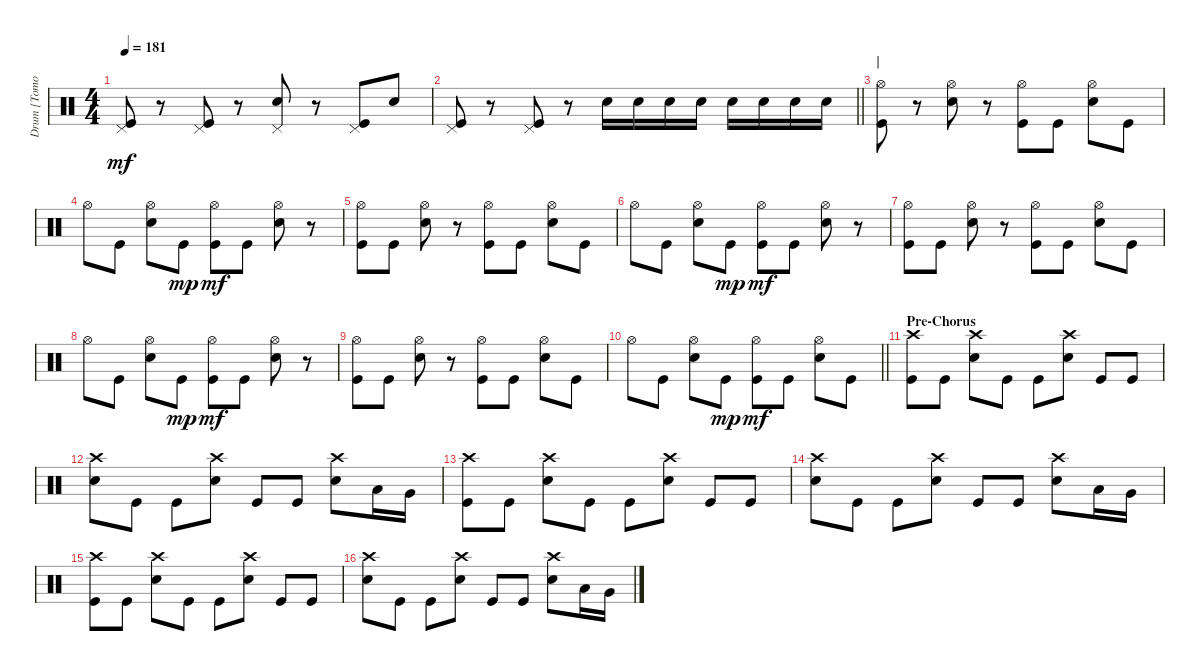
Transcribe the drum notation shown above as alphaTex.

\track ("Drum [Tomoya]" "Drum [Tomo") {instrument percussion}
\staff {score}
\articulation defaults
\ts (4 4)
\tempo 181
\clef neutral
\ks c
("Kick (hit)" "Pedal Hi-Hat (hit)").8{dy mf} r.8 ("Kick (hit)" "Pedal Hi-Hat (hit)").8 r.8 ("Pedal Hi-Hat (hit)" "Snare (hit) 2").8 r.8 ("Kick (hit)" "Pedal Hi-Hat (hit)").8 "Snare (hit) 2".8 |
\barLineRight lightlight
("Kick (hit)" "Pedal Hi-Hat (hit)").8 r.8 ("Kick (hit)" "Pedal Hi-Hat (hit)").8 r.8 "Snare (hit) 2".16 "Snare (hit) 2".16 "Snare (hit) 2".16 "Snare (hit) 2".16 "Snare (hit) 2".16 "Snare (hit) 2".16 "Snare (hit) 2".16 "Snare (hit) 2".16 |
\section ("" "|")
("Kick (hit)" "Hi-Hat (open)").8 r.8 ("Snare (hit) 2" "Hi-Hat (open)").8 r.8 ("Kick (hit)" "Hi-Hat (open)").8 "Kick (hit)".8 ("Snare (hit) 2" "Hi-Hat (open)").8 "Kick (hit)".8 |
"Hi-Hat (open)".8 "Kick (hit)".8 ("Snare (hit) 2" "Hi-Hat (open)").8 "Kick (hit)".8{dy mp} ("Kick (hit)" "Hi-Hat (open)").8{dy mf} "Kick (hit)".8 ("Snare (hit) 2" "Hi-Hat (open)").8 r.8 |
("Kick (hit)" "Hi-Hat (open)").8 "Kick (hit)".8 ("Snare (hit) 2" "Hi-Hat (open)").8 r.8 ("Kick (hit)" "Hi-Hat (open)").8 "Kick (hit)".8 ("Snare (hit) 2" "Hi-Hat (open)").8 "Kick (hit)".8 |
"Hi-Hat (open)".8 "Kick (hit)".8 ("Snare (hit) 2" "Hi-Hat (open)").8 "Kick (hit)".8{dy mp} ("Kick (hit)" "Hi-Hat (open)").8{dy mf} "Kick (hit)".8 ("Snare (hit) 2" "Hi-Hat (open)").8 r.8 |
("Kick (hit)" "Hi-Hat (open)").8 "Kick (hit)".8 ("Snare (hit) 2" "Hi-Hat (open)").8 r.8 ("Kick (hit)" "Hi-Hat (open)").8 "Kick (hit)".8 ("Snare (hit) 2" "Hi-Hat (open)").8 "Kick (hit)".8 |
"Hi-Hat (open)".8 "Kick (hit)".8 ("Snare (hit) 2" "Hi-Hat (open)").8 "Kick (hit)".8{dy mp} ("Kick (hit)" "Hi-Hat (open)").8{dy mf} "Kick (hit)".8 ("Snare (hit) 2" "Hi-Hat (open)").8 r.8 |
("Kick (hit)" "Hi-Hat (open)").8 "Kick (hit)".8 ("Snare (hit) 2" "Hi-Hat (open)").8 r.8 ("Kick (hit)" "Hi-Hat (open)").8 "Kick (hit)".8 ("Snare (hit) 2" "Hi-Hat (open)").8 "Kick (hit)".8 |
\barLineRight lightlight "Hi-Hat (open)".8 "Kick (hit)".8
("Snare (hit) 2" "Hi-Hat (open)").8 "Kick (hit)".8{dy mp} ("Kick (hit)" "Hi-Hat (open)").8{dy mf} "Kick (hit)".8 ("Snare (hit) 2" "Hi-Hat (open)").8 "Kick (hit)".8 |
\section ("" "Pre-Chorus")
("Kick (hit)" "Crash high (hit)").8 "Kick (hit)".8 ("Snare (hit) 2" "Crash high (hit)").8 "Kick (hit)".8 "Kick (hit)".8 ("Snare (hit) 2" "Crash high (hit)").8 "Kick (hit)".8 "Kick (hit)".8 |
("Snare (hit) 2" "Crash high (hit)").8 "Kick (hit)".8 "Kick (hit)".8 ("Snare (hit) 2" "Crash high (hit)").8 "Kick (hit)".8 "Kick (hit)".8 ("Snare (hit) 2" "Crash high (hit)").8 "Low Tom (hit)".16 "Very Low Tom (hit)".16 |
("Kick (hit)" "Crash high (hit)").8 "Kick (hit)".8 ("Snare (hit) 2" "Crash high (hit)").8 "Kick (hit)".8 "Kick (hit)".8 ("Snare (hit) 2" "Crash high (hit)").8 "Kick (hit)".8 "Kick (hit)".8 |
("Snare (hit) 2" "Crash high (hit)").8 "Kick (hit)".8 "Kick (hit)".8 ("Snare (hit) 2" "Crash high (hit)").8 "Kick (hit)".8 "Kick (hit)".8 ("Snare (hit) 2" "Crash high (hit)").8 "Low Tom (hit)".16 "Very Low Tom (hit)".16 |
("Kick (hit)" "Crash high (hit)").8 "Kick (hit)".8 ("Snare (hit) 2" "Crash high (hit)").8 "Kick (hit)".8 "Kick (hit)".8 ("Snare (hit) 2" "Crash high (hit)").8 "Kick (hit)".8 "Kick (hit)".8 |
("Snare (hit) 2" "Crash high (hit)").8 "Kick (hit)".8 "Kick (hit)".8 ("Snare (hit) 2" "Crash high (hit)").8 "Kick (hit)".8 "Kick (hit)".8 ("Snare (hit) 2" "Crash high (hit)").8 "Low Tom (hit)".16 "Very Low Tom (hit)".16
